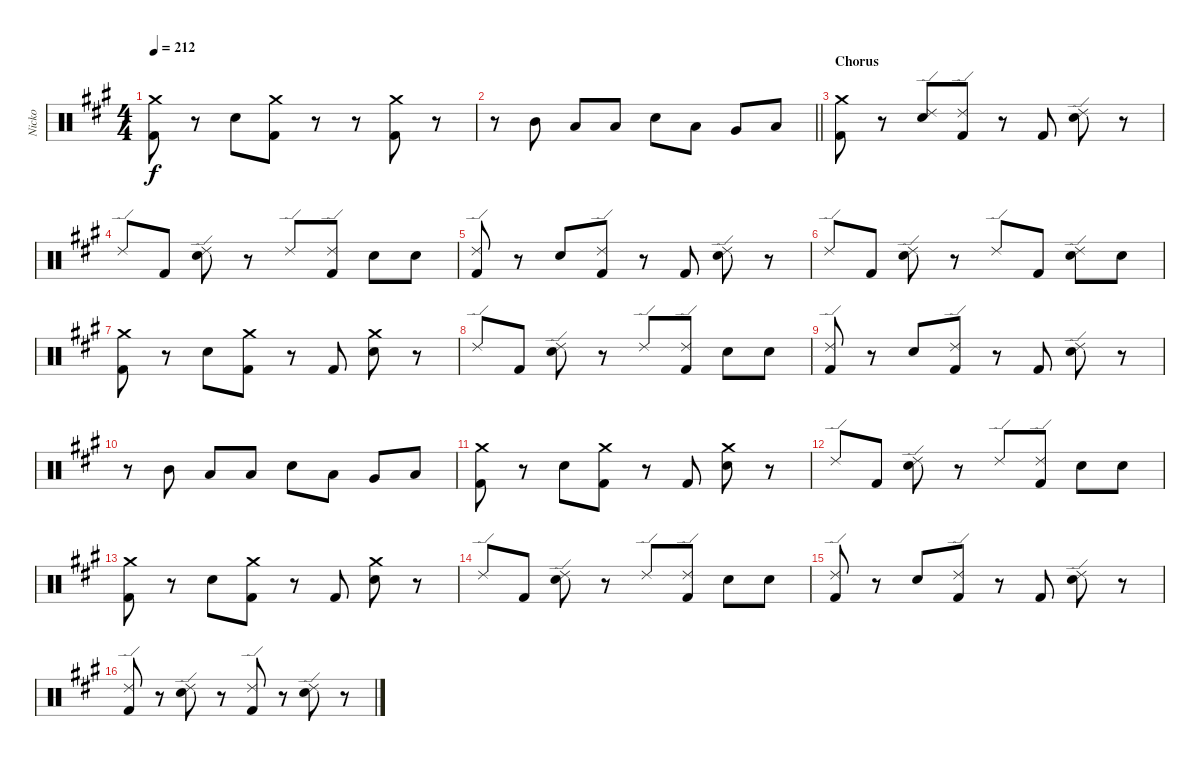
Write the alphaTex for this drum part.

\track ("Nicko" "Nicko") {instrument percussion}
\staff {score}
\articulation defaults
\ts (4 4)
\tempo 212
\clef neutral
\ks a
("Crash medium (hit)" "Kick (hit) 2").8{dy f} r.8 "Snare (hit) 2".8 ("Crash medium (hit)" "Kick (hit) 2").8 r.8 r.8 ("Crash medium (hit)" "Kick (hit) 2").8 r.8 |
\barLineRight lightlight
r.8 "Mid Tom (hit)".8 "Low Tom (hit)".8 "Low Tom (hit)".8 "Snare (hit) 2".8 "Low Tom (hit)".8 "Very Low Tom (hit)".8 "Low Floor Tom (hit)".8 |
\section ("" "Chorus")
("Crash medium (hit)" "Kick (hit) 2").8 r.8 ("Ride (edge) 2" "Snare (hit) 2").8 ("Ride (edge) 2" "Kick (hit) 2").8 r.8 "Kick (hit) 2".8 ("Ride (edge) 2" "Snare (hit) 2").8 r.8 |
"Ride (edge) 2".8 "Kick (hit) 2".8 ("Ride (edge) 2" "Snare (hit) 2").8 r.8 "Ride (edge) 2".8 ("Ride (edge) 2" "Kick (hit) 2").8 "Snare (hit) 2".8 "Snare (hit) 2".8 |
("Ride (edge) 2" "Kick (hit) 2").8 r.8 "Snare (hit) 2".8 ("Ride (edge) 2" "Kick (hit) 2").8 r.8 "Kick (hit) 2".8 ("Ride (edge) 2" "Snare (hit) 2").8 r.8 |
"Ride (edge) 2".8 "Kick (hit) 2".8 ("Ride (edge) 2" "Snare (hit) 2").8 r.8 "Ride (edge) 2".8 "Kick (hit) 2".8 ("Ride (edge) 2" "Snare (hit) 2").8 "Snare (hit) 2".8 |
("Crash medium (hit)" "Kick (hit) 2").8 r.8 "Snare (hit) 2".8 ("Crash medium (hit)" "Kick (hit) 2").8 r.8 "Kick (hit) 2".8 ("Crash medium (hit)" "Snare (hit) 2").8 r.8 |
"Ride (edge) 2".8 "Kick (hit) 2".8 ("Ride (edge) 2" "Snare (hit) 2").8 r.8 "Ride (edge) 2".8 ("Ride (edge) 2" "Kick (hit) 2").8 "Snare (hit) 2".8 "Snare (hit) 2".8 |
("Ride (edge) 2" "Kick (hit) 2").8 r.8 "Snare (hit) 2".8 ("Ride (edge) 2" "Kick (hit) 2").8 r.8 "Kick (hit) 2".8 ("Ride (edge) 2" "Snare (hit) 2").8 r.8 |
r.8 "Mid Tom (hit)".8 "Low Tom (hit)".8 "Low Tom (hit)".8 "Snare (hit) 2".8 "Low Tom (hit)".8 "Very Low Tom (hit)".8 "Low Floor Tom (hit)".8 |
("Crash medium (hit)" "Kick (hit) 2").8 r.8 "Snare (hit) 2".8 ("Crash medium (hit)" "Kick (hit) 2").8 r.8 "Kick (hit) 2".8 ("Crash medium (hit)" "Snare (hit) 2").8 r.8 |
"Ride (edge) 2".8 "Kick (hit) 2".8 ("Ride (edge) 2" "Snare (hit) 2").8 r.8 "Ride (edge) 2".8 ("Ride (edge) 2" "Kick (hit) 2").8 "Snare (hit) 2".8 "Snare (hit) 2".8 |
("Crash medium (hit)" "Kick (hit) 2").8 r.8 "Snare (hit) 2".8 ("Crash medium (hit)" "Kick (hit) 2").8 r.8 "Kick (hit) 2".8 ("Crash medium (hit)" "Snare (hit) 2").8 r.8 |
"Ride (edge) 2".8 "Kick (hit) 2".8 ("Ride (edge) 2" "Snare (hit) 2").8 r.8 "Ride (edge) 2".8 ("Ride (edge) 2" "Kick (hit) 2").8 "Snare (hit) 2".8 "Snare (hit) 2".8 |
("Ride (edge) 2" "Kick (hit) 2").8 r.8 "Snare (hit) 2".8 ("Ride (edge) 2" "Kick (hit) 2").8 r.8 "Kick (hit) 2".8 ("Ride (edge) 2" "Snare (hit) 2").8 r.8 |
("Ride (edge) 2" "Kick (hit) 2").8 r.8 ("Ride (edge) 2" "Snare (hit) 2").8 r.8 ("Ride (edge) 2" "Kick (hit) 2").8 r.8 ("Ride (edge) 2" "Snare (hit) 2").8 r.8
